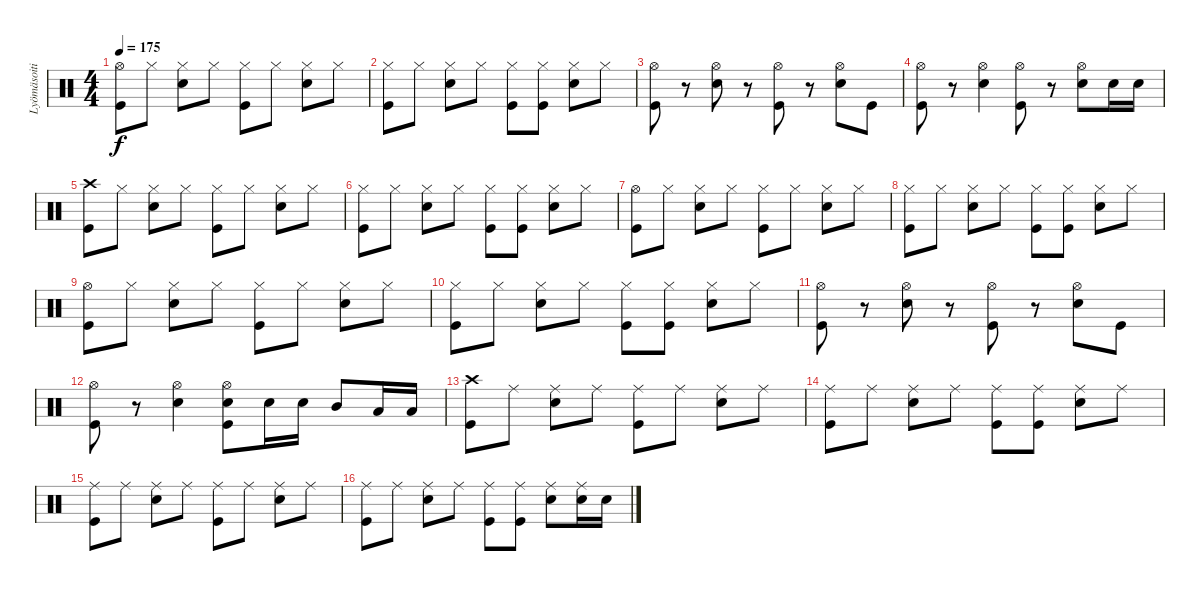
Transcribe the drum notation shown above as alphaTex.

\track ("Lyömäsoitin" "Lyömäsoiti") {instrument percussion}
\staff {score}
\articulation defaults
\ts (4 4)
\tempo 175
\clef neutral
\ks c
("Hi-Hat (open)" "Kick (hit)").8{dy f} "Hi-Hat (closed)".8 ("Hi-Hat (closed)" "Electric Snare (hit)").8 "Hi-Hat (closed)".8 ("Hi-Hat (closed)" "Kick (hit)").8 "Hi-Hat (closed)".8 ("Hi-Hat (closed)" "Electric Snare (hit)").8 "Hi-Hat (closed)".8 |
("Hi-Hat (closed)" "Kick (hit)").8 "Hi-Hat (closed)".8 ("Hi-Hat (closed)" "Electric Snare (hit)").8 "Hi-Hat (closed)".8 ("Hi-Hat (closed)" "Kick (hit)").8 ("Hi-Hat (closed)" "Kick (hit)").8 ("Hi-Hat (closed)" "Electric Snare (hit)").8 "Hi-Hat (closed)".8 |
("Hi-Hat (open)" "Kick (hit)").8 r.8 ("Hi-Hat (open)" "Electric Snare (hit)").8 r.8 ("Hi-Hat (open)" "Kick (hit)").8 r.8 ("Hi-Hat (open)" "Electric Snare (hit)").8 "Kick (hit)".8 |
("Hi-Hat (open)" "Kick (hit)").8 r.8 ("Hi-Hat (open)" "Electric Snare (hit)").4 ("Hi-Hat (open)" "Kick (hit)").8 r.8 ("Hi-Hat (open)" "Electric Snare (hit)").8 "Electric Snare (hit)".16 "Electric Snare (hit)".16 |
("Crash high (hit)" "Kick (hit)").8 "Hi-Hat (closed)".8 ("Hi-Hat (closed)" "Electric Snare (hit)").8 "Hi-Hat (closed)".8 ("Hi-Hat (closed)" "Kick (hit)").8 "Hi-Hat (closed)".8 ("Hi-Hat (closed)" "Electric Snare (hit)").8 "Hi-Hat (closed)".8 |
("Hi-Hat (closed)" "Kick (hit)").8 "Hi-Hat (closed)".8 ("Hi-Hat (closed)" "Electric Snare (hit)").8 "Hi-Hat (closed)".8 ("Hi-Hat (closed)" "Kick (hit)").8 ("Hi-Hat (closed)" "Kick (hit)").8 ("Hi-Hat (closed)" "Electric Snare (hit)").8 "Hi-Hat (closed)".8 |
("Hi-Hat (open)" "Kick (hit)").8 "Hi-Hat (closed)".8 ("Hi-Hat (closed)" "Electric Snare (hit)").8 "Hi-Hat (closed)".8 ("Hi-Hat (closed)" "Kick (hit)").8 "Hi-Hat (closed)".8 ("Hi-Hat (closed)" "Electric Snare (hit)").8 "Hi-Hat (closed)".8 |
("Hi-Hat (closed)" "Kick (hit)").8 "Hi-Hat (closed)".8 ("Hi-Hat (closed)" "Electric Snare (hit)").8 "Hi-Hat (closed)".8 ("Hi-Hat (closed)" "Kick (hit)").8 ("Hi-Hat (closed)" "Kick (hit)").8 ("Hi-Hat (closed)" "Electric Snare (hit)").8 "Hi-Hat (closed)".8 |
("Hi-Hat (open)" "Kick (hit)").8 "Hi-Hat (closed)".8 ("Hi-Hat (closed)" "Electric Snare (hit)").8 "Hi-Hat (closed)".8 ("Hi-Hat (closed)" "Kick (hit)").8 "Hi-Hat (closed)".8 ("Hi-Hat (closed)" "Electric Snare (hit)").8 "Hi-Hat (closed)".8 |
("Hi-Hat (closed)" "Kick (hit)").8 "Hi-Hat (closed)".8 ("Hi-Hat (closed)" "Electric Snare (hit)").8 "Hi-Hat (closed)".8 ("Hi-Hat (closed)" "Kick (hit)").8 ("Hi-Hat (closed)" "Kick (hit)").8 ("Hi-Hat (closed)" "Electric Snare (hit)").8 "Hi-Hat (closed)".8 |
("Hi-Hat (open)" "Kick (hit)").8 r.8 ("Hi-Hat (open)" "Electric Snare (hit)").8 r.8 ("Hi-Hat (open)" "Kick (hit)").8 r.8 ("Hi-Hat (open)" "Electric Snare (hit)").8 "Kick (hit)".8 |
("Hi-Hat (open)" "Kick (hit)").8 r.8 ("Hi-Hat (open)" "Electric Snare (hit)").4 ("Hi-Hat (open)" "Electric Snare (hit)" "Kick (hit)").8 "Electric Snare (hit)".16 "Electric Snare (hit)".16 "Mid Tom (hit)".8 "Low Tom (hit)".16 "Low Tom (hit)".16 |
("Crash high (hit)" "Kick (hit)").8 "Ride (middle)".8 ("Ride (middle)" "Electric Snare (hit)").8 "Ride (middle)".8 ("Ride (middle)" "Kick (hit)").8 "Ride (middle)".8 ("Ride (middle)" "Electric Snare (hit)").8 "Ride (middle)".8 |
("Ride (middle)" "Kick (hit)").8 "Ride (middle)".8 ("Ride (middle)" "Electric Snare (hit)").8 "Ride (middle)".8 ("Ride (middle)" "Kick (hit)").8 ("Ride (middle)" "Kick (hit)").8 ("Ride (middle)" "Electric Snare (hit)").8 "Ride (middle)".8 |
("Ride (middle)" "Kick (hit)").8 "Ride (middle)".8 ("Ride (middle)" "Electric Snare (hit)").8 "Ride (middle)".8 ("Ride (middle)" "Kick (hit)").8 "Ride (middle)".8 ("Ride (middle)" "Electric Snare (hit)").8 "Ride (middle)".8 |
("Ride (middle)" "Kick (hit)").8 "Ride (middle)".8 ("Ride (middle)" "Electric Snare (hit)").8 "Ride (middle)".8 ("Ride (middle)" "Kick (hit)").8 ("Ride (middle)" "Kick (hit)").8 ("Ride (middle)" "Electric Snare (hit)").8 ("Ride (middle)" "Electric Snare (hit)").16 "Electric Snare (hit)".16
